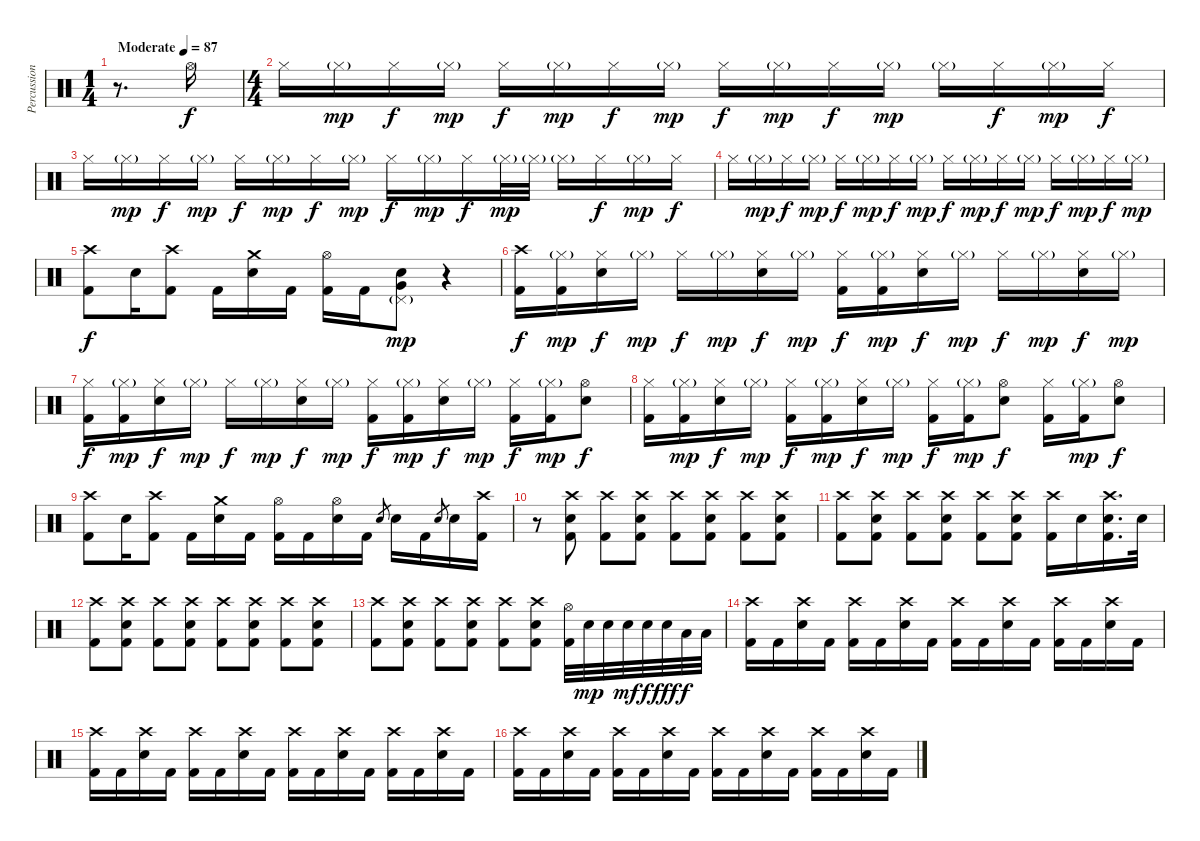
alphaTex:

\track ("Percussion" "Percussion") {instrument percussion}
\staff {score}
\articulation defaults
\ts (1 4)
\tempo (87 "Moderate")
\clef neutral
\ks c
r.8{d dy f} "Hi-Hat (open)".16 |
\ts (4 4)
"Hi-Hat (closed)".16 "Hi-Hat (closed)"{g}.16{dy mp} "Hi-Hat (closed)".16{dy f} "Hi-Hat (closed)"{g}.16{dy mp} "Hi-Hat (closed)".16{dy f} "Hi-Hat (closed)"{g}.16{dy mp} "Hi-Hat (closed)".16{dy f} "Hi-Hat (closed)"{g}.16{dy mp} "Hi-Hat (closed)".16{dy f} "Hi-Hat (closed)"{g}.16{dy mp} "Hi-Hat (closed)".16{dy f} "Hi-Hat (closed)"{g}.16{dy mp} "Hi-Hat (closed)"{g}.16 "Hi-Hat (closed)".16{dy f} "Hi-Hat (closed)"{g}.16{dy mp} "Hi-Hat (closed)".16{dy f} |
"Hi-Hat (closed)".16 "Hi-Hat (closed)"{g}.16{dy mp} "Hi-Hat (closed)".16{dy f} "Hi-Hat (closed)"{g}.16{dy mp} "Hi-Hat (closed)".16{dy f} "Hi-Hat (closed)"{g}.16{dy mp} "Hi-Hat (closed)".16{dy f} "Hi-Hat (closed)"{g}.16{dy mp} "Hi-Hat (closed)".16{dy f} "Hi-Hat (closed)"{g}.16{dy mp} "Hi-Hat (closed)".16{dy f} "Hi-Hat (closed)"{g}.32{dy mp} "Hi-Hat (closed)"{g}.32 "Hi-Hat (closed)"{g}.16 "Hi-Hat (closed)".16{dy f} "Hi-Hat (closed)"{g}.16{dy mp} "Hi-Hat (closed)".16{dy f} |
"Hi-Hat (closed)".16 "Hi-Hat (closed)"{g}.16{dy mp} "Hi-Hat (closed)".16{dy f} "Hi-Hat (closed)"{g}.16{dy mp} "Hi-Hat (closed)".16{dy f} "Hi-Hat (closed)"{g}.16{dy mp} "Hi-Hat (closed)".16{dy f} "Hi-Hat (closed)"{g}.16{dy mp} "Hi-Hat (closed)".16{dy f} "Hi-Hat (closed)"{g}.16{dy mp} "Hi-Hat (closed)".16{dy f} "Hi-Hat (closed)"{g}.16{dy mp} "Hi-Hat (closed)".16{dy f} "Hi-Hat (closed)"{g}.16{dy mp} "Hi-Hat (closed)".16{dy f} "Hi-Hat (closed)"{g}.16{dy mp} |
("Crash high (hit)" "Kick (hit) 2").8{dy f} "Electric Snare (hit)".16 ("Crash high (hit)" "Kick (hit) 2").8 "Kick (hit) 2".16 ("Crash medium (hit)" "Electric Snare (hit)").16 "Kick (hit) 2".16 ("Hi-Hat (open)" "Kick (hit) 2").16 "Kick (hit) 2".16 ("Electric Snare (hit)" "Very Low Tom (hit)" "Pedal Hi-Hat (hit)"{g}).8{dy mp} r.4 |
("Crash high (hit)" "Kick (hit) 2").16{dy f} ("Hi-Hat (closed)"{g} "Kick (hit) 2").16{dy mp} ("Hi-Hat (closed)" "Electric Snare (hit)").16{dy f} "Hi-Hat (closed)"{g}.16{dy mp} "Hi-Hat (closed)".16{dy f} "Hi-Hat (closed)"{g}.16{dy mp} ("Hi-Hat (closed)" "Electric Snare (hit)").16{dy f} "Hi-Hat (closed)"{g}.16{dy mp} ("Hi-Hat (closed)" "Kick (hit) 2").16{dy f} ("Hi-Hat (closed)"{g} "Kick (hit) 2").16{dy mp} ("Hi-Hat (closed)" "Electric Snare (hit)").16{dy f} "Hi-Hat (closed)"{g}.16{dy mp} "Hi-Hat (closed)".16{dy f} "Hi-Hat (closed)"{g}.16{dy mp} ("Hi-Hat (closed)" "Electric Snare (hit)").16{dy f} "Hi-Hat (closed)"{g}.16{dy mp} |
("Hi-Hat (closed)" "Kick (hit) 2").16{dy f} ("Hi-Hat (closed)"{g} "Kick (hit) 2").16{dy mp} ("Hi-Hat (closed)" "Electric Snare (hit)").16{dy f} "Hi-Hat (closed)"{g}.16{dy mp} "Hi-Hat (closed)".16{dy f} "Hi-Hat (closed)"{g}.16{dy mp} ("Hi-Hat (closed)" "Electric Snare (hit)").16{dy f} "Hi-Hat (closed)"{g}.16{dy mp} ("Hi-Hat (closed)" "Kick (hit) 2").16{dy f} ("Hi-Hat (closed)"{g} "Kick (hit) 2").16{dy mp} ("Hi-Hat (closed)" "Electric Snare (hit)").16{dy f} "Hi-Hat (closed)"{g}.16{dy mp} ("Hi-Hat (closed)" "Kick (hit) 2").16{dy f} ("Hi-Hat (closed)"{g} "Kick (hit) 2").16{dy mp} ("Hi-Hat (open)" "Electric Snare (hit)").8{dy f} |
("Hi-Hat (closed)" "Kick (hit) 2").16 ("Hi-Hat (closed)"{g} "Kick (hit) 2").16{dy mp} ("Hi-Hat (closed)" "Electric Snare (hit)").16{dy f} "Hi-Hat (closed)"{g}.16{dy mp} ("Hi-Hat (closed)" "Kick (hit) 2").16{dy f} ("Hi-Hat (closed)"{g} "Kick (hit) 2").16{dy mp} ("Hi-Hat (closed)" "Electric Snare (hit)").16{dy f} "Hi-Hat (closed)"{g}.16{dy mp} ("Hi-Hat (closed)" "Kick (hit) 2").16{dy f} ("Hi-Hat (closed)"{g} "Kick (hit) 2").16{dy mp} ("Hi-Hat (open)" "Electric Snare (hit)").8{dy f} ("Hi-Hat (closed)" "Kick (hit) 2").16 ("Hi-Hat (closed)"{g} "Kick (hit) 2").16{dy mp} ("Hi-Hat (open)" "Electric Snare (hit)").8{dy f} |
("Crash high (hit)" "Kick (hit) 2").8 "Electric Snare (hit)".16 ("Crash high (hit)" "Kick (hit) 2").8 "Kick (hit) 2".16 ("Crash medium (hit)" "Electric Snare (hit)").16 "Kick (hit) 2".16 ("Hi-Hat (open)" "Kick (hit) 2").16 "Kick (hit) 2".16 ("Hi-Hat (open)" "Electric Snare (hit)").16 "Kick (hit) 2".16 "Electric Snare (hit)".8{gr} "Electric Snare (hit)".16 "Kick (hit) 2".16 "Electric Snare (hit)".8{gr} "Electric Snare (hit)".16 ("Crash high (hit)" "Kick (hit) 2").16 |
r.8 ("Crash high (hit)" "Electric Snare (hit)" "Kick (hit) 2").8 ("Crash high (hit)" "Kick (hit) 2").8 ("Crash high (hit)" "Electric Snare (hit)" "Kick (hit) 2").8 ("Crash high (hit)" "Kick (hit) 2").8 ("Crash high (hit)" "Electric Snare (hit)" "Kick (hit) 2").8 ("Crash high (hit)" "Kick (hit) 2").8 ("Crash high (hit)" "Electric Snare (hit)" "Kick (hit) 2").8 |
("Crash high (hit)" "Kick (hit) 2").8 ("Crash high (hit)" "Electric Snare (hit)" "Kick (hit) 2").8 ("Crash high (hit)" "Kick (hit) 2").8 ("Crash high (hit)" "Electric Snare (hit)" "Kick (hit) 2").8 ("Crash high (hit)" "Kick (hit) 2").8 ("Crash high (hit)" "Electric Snare (hit)" "Kick (hit) 2").8 ("Crash high (hit)" "Kick (hit) 2").16 "Electric Snare (hit)".16 ("Crash high (hit)" "Electric Snare (hit)" "Kick (hit) 2").16{d} "Electric Snare (hit)".32 |
("Crash high (hit)" "Kick (hit) 2").8 ("Crash high (hit)" "Electric Snare (hit)" "Kick (hit) 2").8 ("Crash high (hit)" "Kick (hit) 2").8 ("Crash high (hit)" "Electric Snare (hit)" "Kick (hit) 2").8 ("Crash high (hit)" "Kick (hit) 2").8 ("Crash high (hit)" "Electric Snare (hit)" "Kick (hit) 2").8 ("Crash high (hit)" "Kick (hit) 2").8 ("Crash high (hit)" "Electric Snare (hit)" "Kick (hit) 2").8 |
("Crash high (hit)" "Kick (hit) 2").8 ("Crash high (hit)" "Electric Snare (hit)" "Kick (hit) 2").8 ("Crash high (hit)" "Kick (hit) 2").8 ("Crash high (hit)" "Electric Snare (hit)" "Kick (hit) 2").8 ("Crash high (hit)" "Kick (hit) 2").8 ("Crash high (hit)" "Electric Snare (hit)" "Kick (hit) 2").8 ("Hi-Hat (open)" "Kick (hit) 2").32 "Electric Snare (hit)".32{dy mp} "Electric Snare (hit)".32 "Electric Snare (hit)".32{dy mf} "Electric Snare (hit)".32{dy f} "Electric Snare (hit)".32{dy fff} "Low Tom (hit)".32{dy f} "Low Tom (hit)".32 |
("Crash high (hit)" "Kick (hit) 2").16 "Kick (hit) 2".16 ("Crash high (hit)" "Electric Snare (hit)").16 "Kick (hit) 2".16 ("Crash high (hit)" "Kick (hit) 2").16 "Kick (hit) 2".16 ("Crash high (hit)" "Electric Snare (hit)").16 "Kick (hit) 2".16 ("Crash high (hit)" "Kick (hit) 2").16 "Kick (hit) 2".16 ("Crash high (hit)" "Electric Snare (hit)").16 "Kick (hit) 2".16 ("Crash high (hit)" "Kick (hit) 2").16 "Kick (hit) 2".16 ("Crash high (hit)" "Electric Snare (hit)").16 "Kick (hit) 2".16 |
("Crash high (hit)" "Kick (hit) 2").16 "Kick (hit) 2".16 ("Crash high (hit)" "Electric Snare (hit)").16 "Kick (hit) 2".16 ("Crash high (hit)" "Kick (hit) 2").16 "Kick (hit) 2".16 ("Crash high (hit)" "Electric Snare (hit)").16 "Kick (hit) 2".16 ("Crash high (hit)" "Kick (hit) 2").16 "Kick (hit) 2".16 ("Crash high (hit)" "Electric Snare (hit)").16 "Kick (hit) 2".16 ("Crash high (hit)" "Kick (hit) 2").16 "Kick (hit) 2".16 ("Crash high (hit)" "Electric Snare (hit)").16 "Kick (hit) 2".16 |
("Crash high (hit)" "Kick (hit) 2").16 "Kick (hit) 2".16 ("Crash high (hit)" "Electric Snare (hit)").16 "Kick (hit) 2".16 ("Crash high (hit)" "Kick (hit) 2").16 "Kick (hit) 2".16 ("Crash high (hit)" "Electric Snare (hit)").16 "Kick (hit) 2".16 ("Crash high (hit)" "Kick (hit) 2").16 "Kick (hit) 2".16 ("Crash high (hit)" "Electric Snare (hit)").16 "Kick (hit) 2".16 ("Crash high (hit)" "Kick (hit) 2").16 "Kick (hit) 2".16 ("Crash high (hit)" "Electric Snare (hit)").16 "Kick (hit) 2".16
